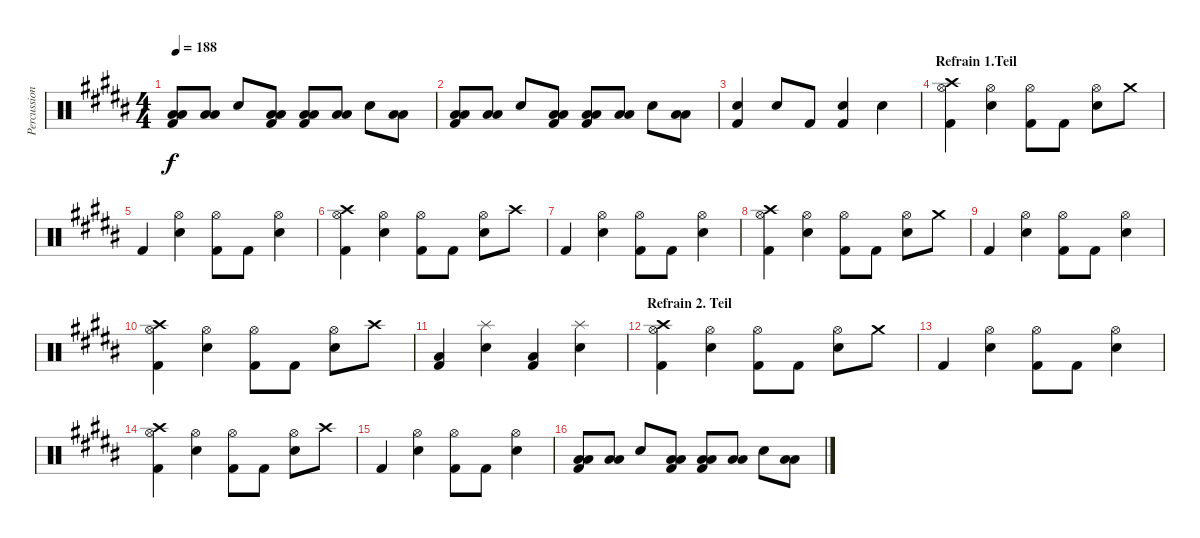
\track ("Percussion" "Percussion") {instrument percussion}
\staff {score}
\articulation defaults
\ts (4 4)
\tempo 188
\clef neutral
\ks b
("Low Tom (hit)" "Low Floor Tom (hit)" "Kick (hit) 2").8{dy f} ("Low Tom (hit)" "Low Floor Tom (hit)").8 "Electric Snare (hit)".8 ("Low Tom (hit)" "Low Floor Tom (hit)" "Kick (hit) 2").8 ("Low Tom (hit)" "Low Floor Tom (hit)" "Kick (hit) 2").8 ("Low Tom (hit)" "Low Floor Tom (hit)").8 "Electric Snare (hit)".8 ("Low Tom (hit)" "Low Floor Tom (hit)").8 |
("Low Tom (hit)" "Low Floor Tom (hit)" "Kick (hit) 2").8 ("Low Tom (hit)" "Low Floor Tom (hit)").8 "Electric Snare (hit)".8 ("Low Tom (hit)" "Low Floor Tom (hit)" "Kick (hit) 2").8 ("Low Tom (hit)" "Low Floor Tom (hit)" "Kick (hit) 2").8 ("Low Tom (hit)" "Low Floor Tom (hit)").8 "Electric Snare (hit)".8 ("Low Tom (hit)" "Low Floor Tom (hit)").8 |
("Electric Snare (hit)" "Kick (hit) 2").4 "Electric Snare (hit)".8 "Kick (hit) 2".8 ("Electric Snare (hit)" "Kick (hit) 2").4 "Electric Snare (hit)".4 |
\section ("" "Refrain 1.Teil")
("Crash high (hit)" "Hi-Hat (open)" "Kick (hit) 2").4 ("Hi-Hat (open)" "Electric Snare (hit)").4 ("Hi-Hat (open)" "Kick (hit) 2").8 "Kick (hit) 2".8 ("Hi-Hat (open)" "Electric Snare (hit)").8 "Crash medium (hit)".8 |
"Kick (hit) 2".4 ("Hi-Hat (open)" "Electric Snare (hit)").4 ("Hi-Hat (open)" "Kick (hit) 2").8 "Kick (hit) 2".8 ("Hi-Hat (open)" "Electric Snare (hit)").4 |
("Crash high (hit)" "Hi-Hat (open)" "Kick (hit) 2").4 ("Hi-Hat (open)" "Electric Snare (hit)").4 ("Hi-Hat (open)" "Kick (hit) 2").8 "Kick (hit) 2".8 ("Hi-Hat (open)" "Electric Snare (hit)").8 "Crash high (hit)".8 |
"Kick (hit) 2".4 ("Hi-Hat (open)" "Electric Snare (hit)").4 ("Hi-Hat (open)" "Kick (hit) 2").8 "Kick (hit) 2".8 ("Hi-Hat (open)" "Electric Snare (hit)").4 |
("Crash high (hit)" "Hi-Hat (open)" "Kick (hit) 2").4 ("Hi-Hat (open)" "Electric Snare (hit)").4 ("Hi-Hat (open)" "Kick (hit) 2").8 "Kick (hit) 2".8 ("Hi-Hat (open)" "Electric Snare (hit)").8 "Crash medium (hit)".8 |
"Kick (hit) 2".4 ("Hi-Hat (open)" "Electric Snare (hit)").4 ("Hi-Hat (open)" "Kick (hit) 2").8 "Kick (hit) 2".8 ("Hi-Hat (open)" "Electric Snare (hit)").4 |
("Crash high (hit)" "Hi-Hat (open)" "Kick (hit) 2").4 ("Hi-Hat (open)" "Electric Snare (hit)").4 ("Hi-Hat (open)" "Kick (hit) 2").8 "Kick (hit) 2".8 ("Hi-Hat (open)" "Electric Snare (hit)").8 "Crash high (hit)".8 |
("Low Floor Tom (hit)" "Kick (hit) 2").4 ("Splash (hit)" "Electric Snare (hit)").4 ("Low Floor Tom (hit)" "Kick (hit) 2").4 ("Splash (hit)" "Electric Snare (hit)").4 |
\section ("" "Refrain 2. Teil")
("Crash high (hit)" "Hi-Hat (open)" "Kick (hit) 2").4 ("Hi-Hat (open)" "Electric Snare (hit)").4 ("Hi-Hat (open)" "Kick (hit) 2").8 "Kick (hit) 2".8 ("Hi-Hat (open)" "Electric Snare (hit)").8 "Crash medium (hit)".8 |
"Kick (hit) 2".4 ("Hi-Hat (open)" "Electric Snare (hit)").4 ("Hi-Hat (open)" "Kick (hit) 2").8 "Kick (hit) 2".8 ("Hi-Hat (open)" "Electric Snare (hit)").4 |
("Crash high (hit)" "Hi-Hat (open)" "Kick (hit) 2").4 ("Hi-Hat (open)" "Electric Snare (hit)").4 ("Hi-Hat (open)" "Kick (hit) 2").8 "Kick (hit) 2".8 ("Hi-Hat (open)" "Electric Snare (hit)").8 "Crash high (hit)".8 |
"Kick (hit) 2".4 ("Hi-Hat (open)" "Electric Snare (hit)").4 ("Hi-Hat (open)" "Kick (hit) 2").8 "Kick (hit) 2".8 ("Hi-Hat (open)" "Electric Snare (hit)").4 |
("Low Tom (hit)" "Low Floor Tom (hit)" "Kick (hit) 2").8 ("Low Tom (hit)" "Low Floor Tom (hit)").8 "Electric Snare (hit)".8 ("Low Tom (hit)" "Low Floor Tom (hit)" "Kick (hit) 2").8 ("Low Tom (hit)" "Low Floor Tom (hit)" "Kick (hit) 2").8 ("Low Tom (hit)" "Low Floor Tom (hit)").8 "Electric Snare (hit)".8 ("Low Tom (hit)" "Low Floor Tom (hit)").8
